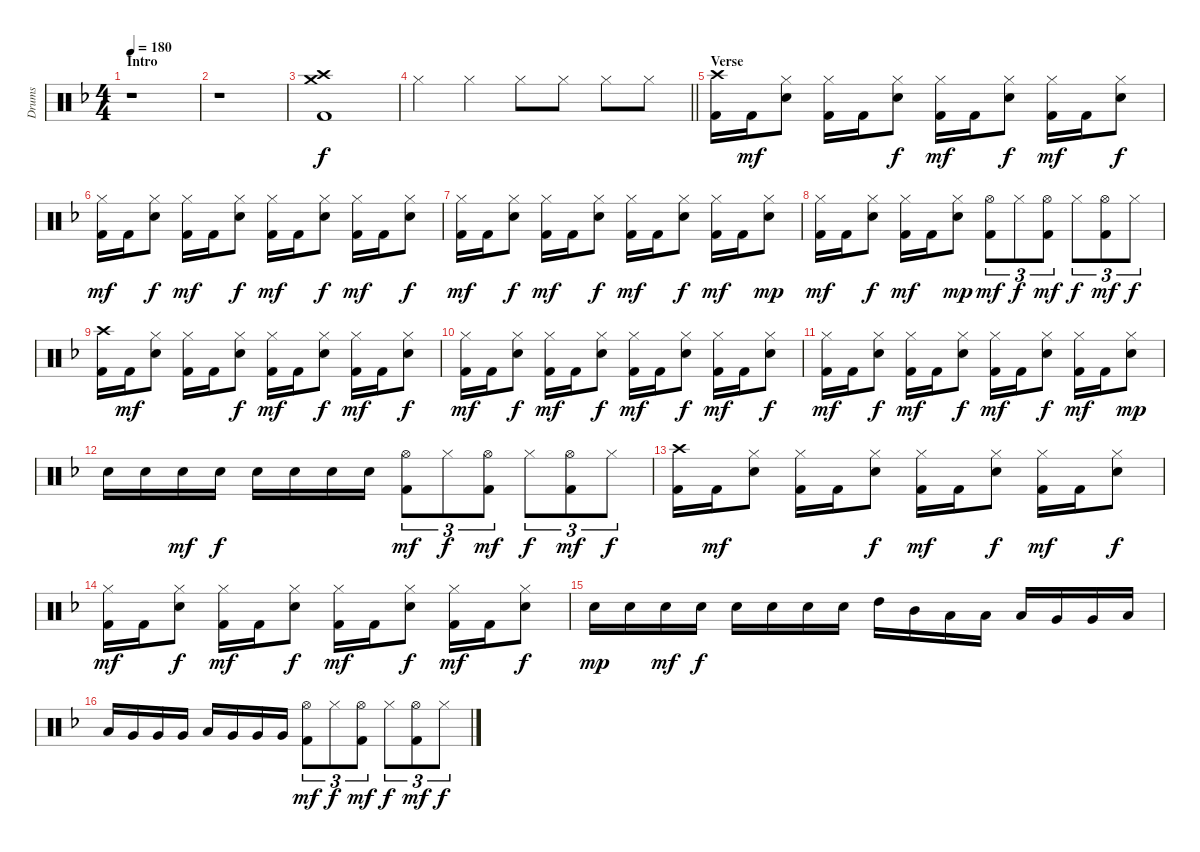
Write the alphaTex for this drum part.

\track ("Drums" "Drums") {instrument percussion}
\staff {score}
\articulation defaults
\ts (4 4)
\section ("" "Intro")
\tempo 180
\clef neutral
\ks f
r.1{dy f} |
r.1 |
("Crash high (hit)" "Crash medium (hit)" "Kick (hit) 2").1 |
\barLineRight lightlight "Hi-Hat (closed)".4 "Hi-Hat (closed)".4 "Hi-Hat (closed)".8 "Hi-Hat (closed)".8 "Hi-Hat (closed)".8 "Hi-Hat (closed)".8
|
\section ("" "Verse")
("Crash high (hit)" "Kick (hit) 2").16 "Kick (hit) 2".16{dy mf} ("Hi-Hat (closed)" "Snare (hit) 2").8 ("Hi-Hat (closed)" "Kick (hit) 2").16 "Kick (hit) 2".16 ("Hi-Hat (closed)" "Snare (hit) 2").8{dy f} ("Hi-Hat (closed)" "Kick (hit) 2").16{dy mf} "Kick (hit) 2".16 ("Hi-Hat (closed)" "Snare (hit) 2").8{dy f} ("Hi-Hat (closed)" "Kick (hit) 2").16{dy mf} "Kick (hit) 2".16 ("Hi-Hat (closed)" "Snare (hit) 2").8{dy f} |
("Hi-Hat (closed)" "Kick (hit) 2").16{dy mf} "Kick (hit) 2".16 ("Hi-Hat (closed)" "Snare (hit) 2").8{dy f} ("Hi-Hat (closed)" "Kick (hit) 2").16{dy mf} "Kick (hit) 2".16 ("Hi-Hat (closed)" "Snare (hit) 2").8{dy f} ("Hi-Hat (closed)" "Kick (hit) 2").16{dy mf} "Kick (hit) 2".16 ("Hi-Hat (closed)" "Snare (hit) 2").8{dy f} ("Hi-Hat (closed)" "Kick (hit) 2").16{dy mf} "Kick (hit) 2".16 ("Hi-Hat (closed)" "Snare (hit) 2").8{dy f} |
("Hi-Hat (closed)" "Kick (hit) 2").16{dy mf} "Kick (hit) 2".16 ("Hi-Hat (closed)" "Snare (hit) 2").8{dy f} ("Hi-Hat (closed)" "Kick (hit) 2").16{dy mf} "Kick (hit) 2".16 ("Hi-Hat (closed)" "Snare (hit) 2").8{dy f} ("Hi-Hat (closed)" "Kick (hit) 2").16{dy mf} "Kick (hit) 2".16 ("Hi-Hat (closed)" "Snare (hit) 2").8{dy f} ("Hi-Hat (closed)" "Kick (hit) 2").16{dy mf} "Kick (hit) 2".16 ("Hi-Hat (closed)" "Snare (hit) 2").8{dy mp} |
("Hi-Hat (closed)" "Kick (hit) 2").16{dy mf} "Kick (hit) 2".16 ("Hi-Hat (closed)" "Snare (hit) 2").8{dy f} ("Hi-Hat (closed)" "Kick (hit) 2").16{dy mf} "Kick (hit) 2".16 ("Hi-Hat (closed)" "Snare (hit) 2").8{dy mp} ("Hi-Hat (open)" "Kick (hit) 2").8{tu (3 2) dy mf} "Hi-Hat (closed)".8{tu (3 2) dy f} ("Hi-Hat (open)" "Kick (hit) 2").8{tu (3 2) dy mf} "Hi-Hat (closed)".8{tu (3 2) dy f} ("Hi-Hat (open)" "Kick (hit) 2").8{tu (3 2) dy mf} "Hi-Hat (closed)".8{tu (3 2) dy f} |
("Crash high (hit)" "Kick (hit) 2").16 "Kick (hit) 2".16{dy mf} ("Hi-Hat (closed)" "Snare (hit) 2").8 ("Hi-Hat (closed)" "Kick (hit) 2").16 "Kick (hit) 2".16 ("Hi-Hat (closed)" "Snare (hit) 2").8{dy f} ("Hi-Hat (closed)" "Kick (hit) 2").16{dy mf} "Kick (hit) 2".16 ("Hi-Hat (closed)" "Snare (hit) 2").8{dy f} ("Hi-Hat (closed)" "Kick (hit) 2").16{dy mf} "Kick (hit) 2".16 ("Hi-Hat (closed)" "Snare (hit) 2").8{dy f} |
("Hi-Hat (closed)" "Kick (hit) 2").16{dy mf} "Kick (hit) 2".16 ("Hi-Hat (closed)" "Snare (hit) 2").8{dy f} ("Hi-Hat (closed)" "Kick (hit) 2").16{dy mf} "Kick (hit) 2".16 ("Hi-Hat (closed)" "Snare (hit) 2").8{dy f} ("Hi-Hat (closed)" "Kick (hit) 2").16{dy mf} "Kick (hit) 2".16 ("Hi-Hat (closed)" "Snare (hit) 2").8{dy f} ("Hi-Hat (closed)" "Kick (hit) 2").16{dy mf} "Kick (hit) 2".16 ("Hi-Hat (closed)" "Snare (hit) 2").8{dy f} |
("Hi-Hat (closed)" "Kick (hit) 2").16{dy mf} "Kick (hit) 2".16 ("Hi-Hat (closed)" "Snare (hit) 2").8{dy f} ("Hi-Hat (closed)" "Kick (hit) 2").16{dy mf} "Kick (hit) 2".16 ("Hi-Hat (closed)" "Snare (hit) 2").8{dy f} ("Hi-Hat (closed)" "Kick (hit) 2").16{dy mf} "Kick (hit) 2".16 ("Hi-Hat (closed)" "Snare (hit) 2").8{dy f} ("Hi-Hat (closed)" "Kick (hit) 2").16{dy mf} "Kick (hit) 2".16 ("Hi-Hat (closed)" "Snare (hit) 2").8{dy mp} |
"Snare (hit) 2".16 "Snare (hit) 2".16 "Snare (hit) 2".16{dy mf} "Snare (hit) 2".16{dy f} "Snare (hit) 2".16 "Snare (hit) 2".16 "Snare (hit) 2".16 "Snare (hit) 2".16 ("Hi-Hat (open)" "Kick (hit) 2").8{tu (3 2) dy mf} "Hi-Hat (closed)".8{tu (3 2) dy f} ("Hi-Hat (open)" "Kick (hit) 2").8{tu (3 2) dy mf} "Hi-Hat (closed)".8{tu (3 2) dy f} ("Hi-Hat (open)" "Kick (hit) 2").8{tu (3 2) dy mf} "Hi-Hat (closed)".8{tu (3 2) dy f} |
("Crash high (hit)" "Kick (hit) 2").16 "Kick (hit) 2".16{dy mf} ("Hi-Hat (closed)" "Snare (hit) 2").8 ("Hi-Hat (closed)" "Kick (hit) 2").16 "Kick (hit) 2".16 ("Hi-Hat (closed)" "Snare (hit) 2").8{dy f} ("Hi-Hat (closed)" "Kick (hit) 2").16{dy mf} "Kick (hit) 2".16 ("Hi-Hat (closed)" "Snare (hit) 2").8{dy f} ("Hi-Hat (closed)" "Kick (hit) 2").16{dy mf} "Kick (hit) 2".16 ("Hi-Hat (closed)" "Snare (hit) 2").8{dy f} |
("Hi-Hat (closed)" "Kick (hit) 2").16{dy mf} "Kick (hit) 2".16 ("Hi-Hat (closed)" "Snare (hit) 2").8{dy f} ("Hi-Hat (closed)" "Kick (hit) 2").16{dy mf} "Kick (hit) 2".16 ("Hi-Hat (closed)" "Snare (hit) 2").8{dy f} ("Hi-Hat (closed)" "Kick (hit) 2").16{dy mf} "Kick (hit) 2".16 ("Hi-Hat (closed)" "Snare (hit) 2").8{dy f} ("Hi-Hat (closed)" "Kick (hit) 2").16{dy mf} "Kick (hit) 2".16 ("Hi-Hat (closed)" "Snare (hit) 2").8{dy f} |
"Snare (hit) 2".16{dy mp} "Snare (hit) 2".16 "Snare (hit) 2".16{dy mf} "Snare (hit) 2".16{dy f} "Snare (hit) 2".16 "Snare (hit) 2".16 "Snare (hit) 2".16 "Snare (hit) 2".16 "High Tom (hit)".16 "Mid Tom (hit)".16 "Low Tom (hit)".16 "Low Tom (hit)".16 "Low Tom (hit)".16 "Very Low Tom (hit)".16 "Very Low Tom (hit)".16 "Low Tom (hit)".16 |
"Low Tom (hit)".16 "Very Low Tom (hit)".16 "Very Low Tom (hit)".16 "Very Low Tom (hit)".16 "Low Tom (hit)".16 "Very Low Tom (hit)".16 "Very Low Tom (hit)".16 "Very Low Tom (hit)".16 ("Hi-Hat (open)" "Kick (hit) 2").8{tu (3 2) dy mf} "Hi-Hat (closed)".8{tu (3 2) dy f} ("Hi-Hat (open)" "Kick (hit) 2").8{tu (3 2) dy mf} "Hi-Hat (closed)".8{tu (3 2) dy f} ("Hi-Hat (open)" "Kick (hit) 2").8{tu (3 2) dy mf} "Hi-Hat (closed)".8{tu (3 2) dy f}
